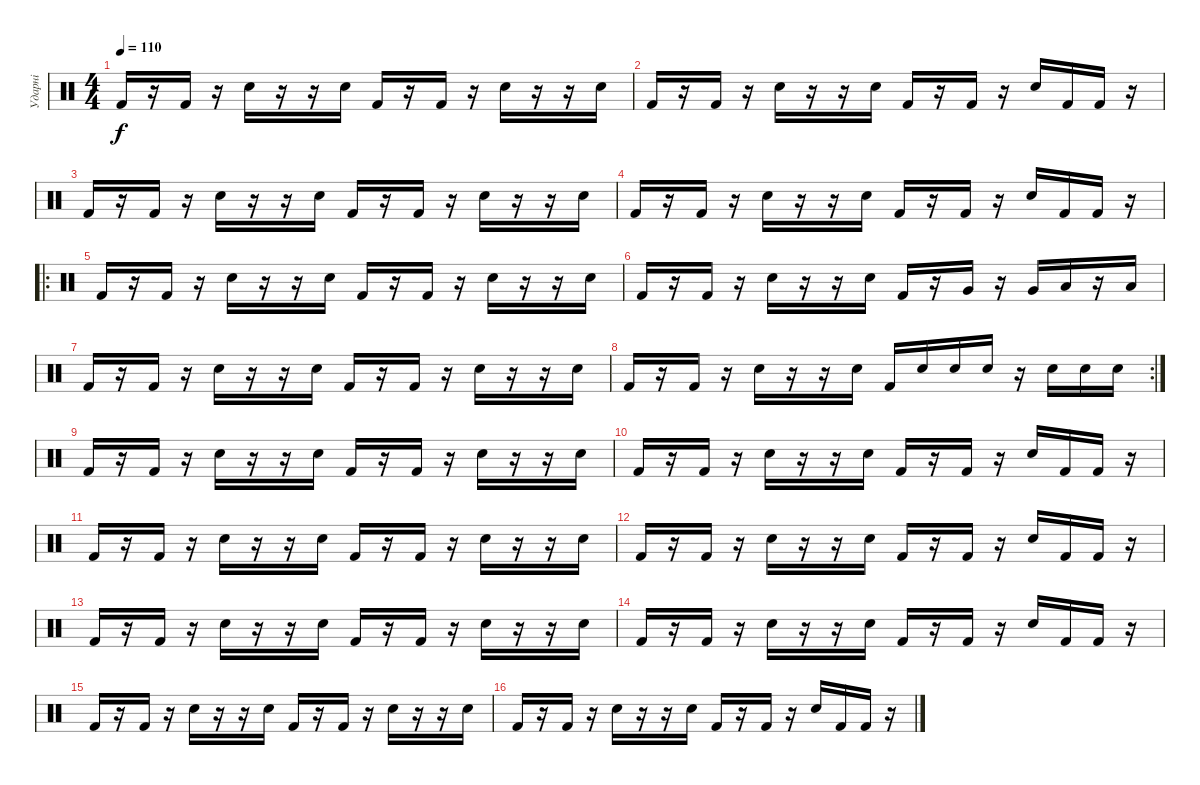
\track ("Ударні" "Ударні") {instrument percussion}
\staff {score}
\articulation defaults
\ts (4 4)
\tempo 110
\clef neutral
\ks c "Kick (hit) 2".16{dy f volume 14}
r.16 "Kick (hit) 2".16 r.16 "Electric Snare (hit)".16 r.16 r.16 "Electric Snare (hit)".16 "Kick (hit) 2".16 r.16 "Kick (hit) 2".16 r.16 "Electric Snare (hit)".16 r.16 r.16 "Electric Snare (hit)".16 |
"Kick (hit) 2".16{volume 14} r.16 "Kick (hit) 2".16 r.16 "Electric Snare (hit)".16 r.16 r.16 "Electric Snare (hit)".16 "Kick (hit) 2".16 r.16 "Kick (hit) 2".16 r.16 "Electric Snare (hit)".16 "Kick (hit) 2".16 "Kick (hit) 2".16 r.16 |
"Kick (hit) 2".16{volume 14} r.16 "Kick (hit) 2".16 r.16 "Electric Snare (hit)".16 r.16 r.16 "Electric Snare (hit)".16 "Kick (hit) 2".16 r.16 "Kick (hit) 2".16 r.16 "Electric Snare (hit)".16 r.16 r.16 "Electric Snare (hit)".16 |
"Kick (hit) 2".16{volume 14} r.16 "Kick (hit) 2".16 r.16 "Electric Snare (hit)".16 r.16 r.16 "Electric Snare (hit)".16 "Kick (hit) 2".16 r.16 "Kick (hit) 2".16 r.16 "Electric Snare (hit)".16 "Kick (hit) 2".16 "Kick (hit) 2".16 r.16 |
\ro "Kick (hit) 2".16{volume 14}
r.16 "Kick (hit) 2".16 r.16 "Electric Snare (hit)".16 r.16 r.16 "Electric Snare (hit)".16 "Kick (hit) 2".16 r.16 "Kick (hit) 2".16 r.16 "Electric Snare (hit)".16 r.16 r.16 "Electric Snare (hit)".16 |
"Kick (hit) 2".16{volume 14} r.16 "Kick (hit) 2".16 r.16 "Electric Snare (hit)".16 r.16 r.16 "Electric Snare (hit)".16 "Kick (hit) 2".16 r.16 "Very Low Tom (hit)".16 r.16 "Very Low Tom (hit)".16 "Low Floor Tom (hit)".16 r.16 "Low Floor Tom (hit)".16 |
"Kick (hit) 2".16{volume 14} r.16 "Kick (hit) 2".16 r.16 "Electric Snare (hit)".16 r.16 r.16 "Electric Snare (hit)".16 "Kick (hit) 2".16 r.16 "Kick (hit) 2".16 r.16 "Electric Snare (hit)".16 r.16 r.16 "Electric Snare (hit)".16 |
\rc 2 "Kick (hit) 2".16{volume 14}
r.16 "Kick (hit) 2".16 r.16 "Electric Snare (hit)".16 r.16 r.16 "Electric Snare (hit)".16 "Kick (hit) 2".16 "Electric Snare (hit)".16 "Electric Snare (hit)".16 "Electric Snare (hit)".16 r.16 "Electric Snare (hit)".16 "Electric Snare (hit)".16 "Electric Snare (hit)".16 |
"Kick (hit) 2".16{volume 14} r.16 "Kick (hit) 2".16 r.16 "Electric Snare (hit)".16 r.16 r.16 "Electric Snare (hit)".16 "Kick (hit) 2".16 r.16 "Kick (hit) 2".16 r.16 "Electric Snare (hit)".16 r.16 r.16 "Electric Snare (hit)".16 |
"Kick (hit) 2".16{volume 14} r.16 "Kick (hit) 2".16 r.16 "Electric Snare (hit)".16 r.16 r.16 "Electric Snare (hit)".16 "Kick (hit) 2".16 r.16 "Kick (hit) 2".16 r.16 "Electric Snare (hit)".16 "Kick (hit) 2".16 "Kick (hit) 2".16 r.16 |
"Kick (hit) 2".16{volume 14} r.16 "Kick (hit) 2".16 r.16 "Electric Snare (hit)".16 r.16 r.16 "Electric Snare (hit)".16 "Kick (hit) 2".16 r.16 "Kick (hit) 2".16 r.16 "Electric Snare (hit)".16 r.16 r.16 "Electric Snare (hit)".16 |
"Kick (hit) 2".16{volume 14} r.16 "Kick (hit) 2".16 r.16 "Electric Snare (hit)".16 r.16 r.16 "Electric Snare (hit)".16 "Kick (hit) 2".16 r.16 "Kick (hit) 2".16 r.16 "Electric Snare (hit)".16 "Kick (hit) 2".16 "Kick (hit) 2".16 r.16 |
"Kick (hit) 2".16{volume 14} r.16 "Kick (hit) 2".16 r.16 "Electric Snare (hit)".16 r.16 r.16 "Electric Snare (hit)".16 "Kick (hit) 2".16 r.16 "Kick (hit) 2".16 r.16 "Electric Snare (hit)".16 r.16 r.16 "Electric Snare (hit)".16 |
"Kick (hit) 2".16{volume 14} r.16 "Kick (hit) 2".16 r.16 "Electric Snare (hit)".16 r.16 r.16 "Electric Snare (hit)".16 "Kick (hit) 2".16 r.16 "Kick (hit) 2".16 r.16 "Electric Snare (hit)".16 "Kick (hit) 2".16 "Kick (hit) 2".16 r.16 |
"Kick (hit) 2".16{volume 14} r.16 "Kick (hit) 2".16 r.16 "Electric Snare (hit)".16 r.16 r.16 "Electric Snare (hit)".16 "Kick (hit) 2".16 r.16 "Kick (hit) 2".16 r.16 "Electric Snare (hit)".16 r.16 r.16 "Electric Snare (hit)".16 |
"Kick (hit) 2".16{volume 14} r.16 "Kick (hit) 2".16 r.16 "Electric Snare (hit)".16 r.16 r.16 "Electric Snare (hit)".16 "Kick (hit) 2".16 r.16 "Kick (hit) 2".16 r.16 "Electric Snare (hit)".16 "Kick (hit) 2".16 "Kick (hit) 2".16 r.16
